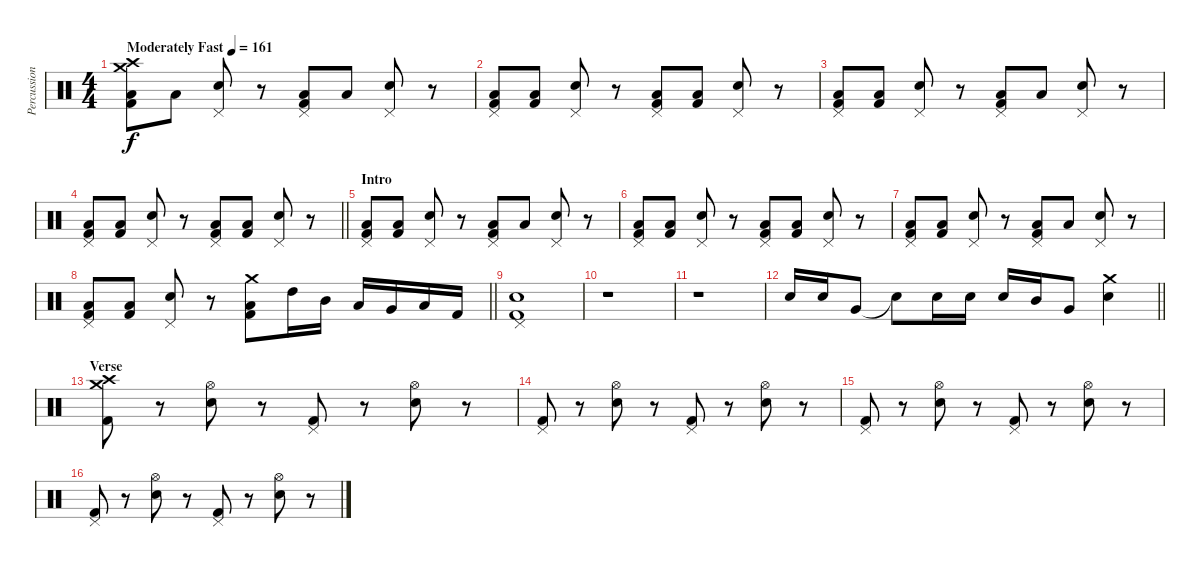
\track ("Percussion" "Percussion") {instrument percussion}
\staff {score}
\articulation defaults
\ts (4 4)
\tempo (161 "Moderately Fast")
\clef neutral
\ks c
("Crash high (hit)" "Crash medium (hit)" "Low Floor Tom (hit)" "Kick (hit) 2").8{dy f} "Low Floor Tom (hit)".8 ("Pedal Hi-Hat (hit)" "Electric Snare (hit)").8 r.8 ("Pedal Hi-Hat (hit)" "Low Floor Tom (hit)" "Kick (hit) 2").8 "Low Floor Tom (hit)".8 ("Pedal Hi-Hat (hit)" "Electric Snare (hit)").8 r.8 |
("Pedal Hi-Hat (hit)" "Low Floor Tom (hit)" "Kick (hit) 2").8 ("Low Floor Tom (hit)" "Kick (hit) 2").8 ("Pedal Hi-Hat (hit)" "Electric Snare (hit)").8 r.8 ("Pedal Hi-Hat (hit)" "Low Floor Tom (hit)" "Kick (hit) 2").8 ("Low Floor Tom (hit)" "Kick (hit) 2").8 ("Pedal Hi-Hat (hit)" "Electric Snare (hit)").8 r.8 |
("Pedal Hi-Hat (hit)" "Low Floor Tom (hit)" "Kick (hit) 2").8 ("Low Floor Tom (hit)" "Kick (hit) 2").8 ("Pedal Hi-Hat (hit)" "Electric Snare (hit)").8 r.8 ("Pedal Hi-Hat (hit)" "Low Floor Tom (hit)" "Kick (hit) 2").8 "Low Floor Tom (hit)".8 ("Pedal Hi-Hat (hit)" "Electric Snare (hit)").8 r.8 |
\barLineRight lightlight
("Pedal Hi-Hat (hit)" "Low Floor Tom (hit)" "Kick (hit) 2").8 ("Low Floor Tom (hit)" "Kick (hit) 2").8 ("Pedal Hi-Hat (hit)" "Electric Snare (hit)").8 r.8 ("Pedal Hi-Hat (hit)" "Low Floor Tom (hit)" "Kick (hit) 2").8 ("Low Floor Tom (hit)" "Kick (hit) 2").8 ("Pedal Hi-Hat (hit)" "Electric Snare (hit)").8 r.8 |
\section ("" "Intro")
("Pedal Hi-Hat (hit)" "Low Floor Tom (hit)" "Kick (hit) 2").8 ("Low Floor Tom (hit)" "Kick (hit) 2").8 ("Pedal Hi-Hat (hit)" "Electric Snare (hit)").8 r.8 ("Pedal Hi-Hat (hit)" "Low Floor Tom (hit)" "Kick (hit) 2").8 "Low Floor Tom (hit)".8 ("Pedal Hi-Hat (hit)" "Electric Snare (hit)").8 r.8 |
("Pedal Hi-Hat (hit)" "Low Floor Tom (hit)" "Kick (hit) 2").8 ("Low Floor Tom (hit)" "Kick (hit) 2").8 ("Pedal Hi-Hat (hit)" "Electric Snare (hit)").8 r.8 ("Pedal Hi-Hat (hit)" "Low Floor Tom (hit)" "Kick (hit) 2").8 ("Low Floor Tom (hit)" "Kick (hit) 2").8 ("Pedal Hi-Hat (hit)" "Electric Snare (hit)").8 r.8 |
("Pedal Hi-Hat (hit)" "Low Floor Tom (hit)" "Kick (hit) 2").8 ("Low Floor Tom (hit)" "Kick (hit) 2").8 ("Pedal Hi-Hat (hit)" "Electric Snare (hit)").8 r.8 ("Pedal Hi-Hat (hit)" "Low Floor Tom (hit)" "Kick (hit) 2").8 "Low Floor Tom (hit)".8 ("Pedal Hi-Hat (hit)" "Electric Snare (hit)").8 r.8 |
\barLineRight lightlight
("Pedal Hi-Hat (hit)" "Low Floor Tom (hit)" "Kick (hit) 2").8 ("Low Floor Tom (hit)" "Kick (hit) 2").8 ("Pedal Hi-Hat (hit)" "Electric Snare (hit)").8 r.8 ("Crash medium (hit)" "Low Floor Tom (hit)" "Kick (hit) 2").8 "High Tom (hit)".16 "Mid Tom (hit)".16 "Low Tom (hit)".16 "Very Low Tom (hit)".16 "Low Floor Tom (hit)".16 "Kick (hit) 2".16 |
("Pedal Hi-Hat (hit)" "Electric Snare (hit)" "Kick (hit) 2").1 |
r.1 |
r.1 |
\barLineRight lightlight "Electric Snare (hit)".16 "Electric Snare (hit)".16 "Very Low Tom (hit)".8 "Snare (hit)"{t}.8 "Electric Snare (hit)".16 "Electric Snare (hit)".16 "Electric Snare (hit)".16 "Mid Tom (hit)".16 "Very Low Tom (hit)".8
("Crash medium (hit)" "Electric Snare (hit)").4 |
\section ("" "Verse")
("Crash high (hit)" "Crash medium (hit)" "Kick (hit) 2").8 r.8 ("Hi-Hat (open)" "Electric Snare (hit)").8 r.8 ("Pedal Hi-Hat (hit)" "Kick (hit) 2").8 r.8 ("Hi-Hat (open)" "Electric Snare (hit)").8 r.8 |
("Pedal Hi-Hat (hit)" "Kick (hit) 2").8 r.8 ("Hi-Hat (open)" "Electric Snare (hit)").8 r.8 ("Pedal Hi-Hat (hit)" "Kick (hit) 2").8 r.8 ("Hi-Hat (open)" "Electric Snare (hit)").8 r.8 |
("Pedal Hi-Hat (hit)" "Kick (hit) 2").8 r.8 ("Hi-Hat (open)" "Electric Snare (hit)").8 r.8 ("Pedal Hi-Hat (hit)" "Kick (hit) 2").8 r.8 ("Hi-Hat (open)" "Electric Snare (hit)").8 r.8 |
("Pedal Hi-Hat (hit)" "Kick (hit) 2").8 r.8 ("Hi-Hat (open)" "Electric Snare (hit)").8 r.8 ("Pedal Hi-Hat (hit)" "Kick (hit) 2").8 r.8 ("Hi-Hat (open)" "Electric Snare (hit)").8 r.8
